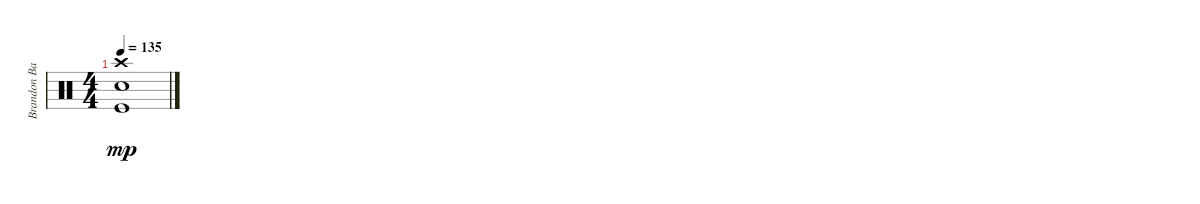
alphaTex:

\track ("Brandon Barnes - Drums" "Brandon Ba") {instrument percussion}
\staff {score}
\articulation defaults
\ts (4 4)
\tempo 135
\clef neutral
\ks c
("Crash high (hit)" "Kick (hit)" "Snare (hit) 2").1{dy mp}
